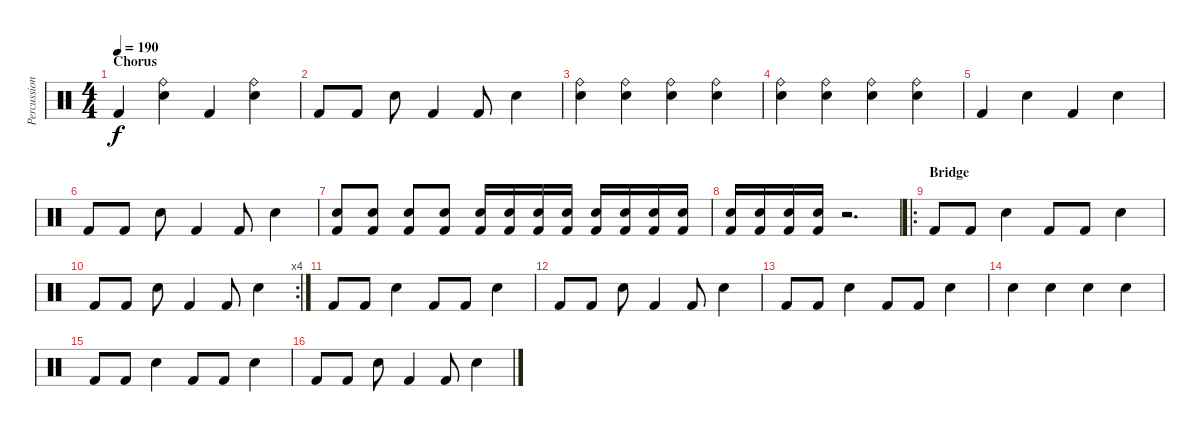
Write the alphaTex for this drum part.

\track ("Percussion" "Percussion") {instrument percussion}
\staff {score}
\articulation defaults
\ts (4 4)
\section ("" "Chorus")
\tempo 190
\clef neutral
\ks c "Kick (hit) 2".4{dy f}
("Ride (bell)" "Snare (hit) 2").4 "Kick (hit) 2".4 ("Ride (bell)" "Snare (hit) 2").4 |
"Kick (hit) 2".8 "Kick (hit) 2".8 "Snare (hit) 2".8 "Kick (hit) 2".4 "Kick (hit) 2".8 "Snare (hit) 2".4 |
("Ride (bell)" "Snare (hit) 2").4 ("Ride (bell)" "Snare (hit) 2").4 ("Ride (bell)" "Snare (hit) 2").4 ("Ride (bell)" "Snare (hit) 2").4 |
("Ride (bell)" "Snare (hit) 2").4 ("Ride (bell)" "Snare (hit) 2").4 ("Ride (bell)" "Snare (hit) 2").4 ("Ride (bell)" "Snare (hit) 2").4 |
"Kick (hit) 2".4 "Snare (hit) 2".4 "Kick (hit) 2".4 "Snare (hit) 2".4 |
"Kick (hit) 2".8 "Kick (hit) 2".8 "Snare (hit) 2".8 "Kick (hit) 2".4 "Kick (hit) 2".8 "Snare (hit) 2".4 |
("Kick (hit) 2" "Snare (hit) 2").8 ("Kick (hit) 2" "Snare (hit) 2").8 ("Kick (hit) 2" "Snare (hit) 2").8 ("Kick (hit) 2" "Snare (hit) 2").8 ("Kick (hit) 2" "Snare (hit) 2").16 ("Kick (hit) 2" "Snare (hit) 2").16 ("Kick (hit) 2" "Snare (hit) 2").16 ("Kick (hit) 2" "Snare (hit) 2").16 ("Kick (hit) 2" "Snare (hit) 2").16 ("Kick (hit) 2" "Snare (hit) 2").16 ("Kick (hit) 2" "Snare (hit) 2").16 ("Kick (hit) 2" "Snare (hit) 2").16 |
("Kick (hit) 2" "Snare (hit) 2").16 ("Kick (hit) 2" "Snare (hit) 2").16 ("Kick (hit) 2" "Snare (hit) 2").16 ("Kick (hit) 2" "Snare (hit) 2").16 r.2{d} |
\ro
\section ("" "Bridge")
"Kick (hit) 2".8 "Kick (hit) 2".8 "Snare (hit) 2".4 "Kick (hit) 2".8 "Kick (hit) 2".8 "Snare (hit) 2".4 |
\rc 4 "Kick (hit) 2".8 "Kick (hit) 2".8 "Snare (hit) 2".8 "Kick (hit) 2".4 "Kick (hit) 2".8 "Snare (hit) 2".4
|
"Kick (hit) 2".8 "Kick (hit) 2".8 "Snare (hit) 2".4 "Kick (hit) 2".8 "Kick (hit) 2".8 "Snare (hit) 2".4 |
"Kick (hit) 2".8 "Kick (hit) 2".8 "Snare (hit) 2".8 "Kick (hit) 2".4 "Kick (hit) 2".8 "Snare (hit) 2".4 |
"Kick (hit) 2".8 "Kick (hit) 2".8 "Snare (hit) 2".4 "Kick (hit) 2".8 "Kick (hit) 2".8 "Snare (hit) 2".4 |
"Snare (hit) 2".4 "Snare (hit) 2".4 "Snare (hit) 2".4 "Snare (hit) 2".4 |
"Kick (hit) 2".8 "Kick (hit) 2".8 "Snare (hit) 2".4 "Kick (hit) 2".8 "Kick (hit) 2".8 "Snare (hit) 2".4 |
"Kick (hit) 2".8 "Kick (hit) 2".8 "Snare (hit) 2".8 "Kick (hit) 2".4 "Kick (hit) 2".8 "Snare (hit) 2".4
